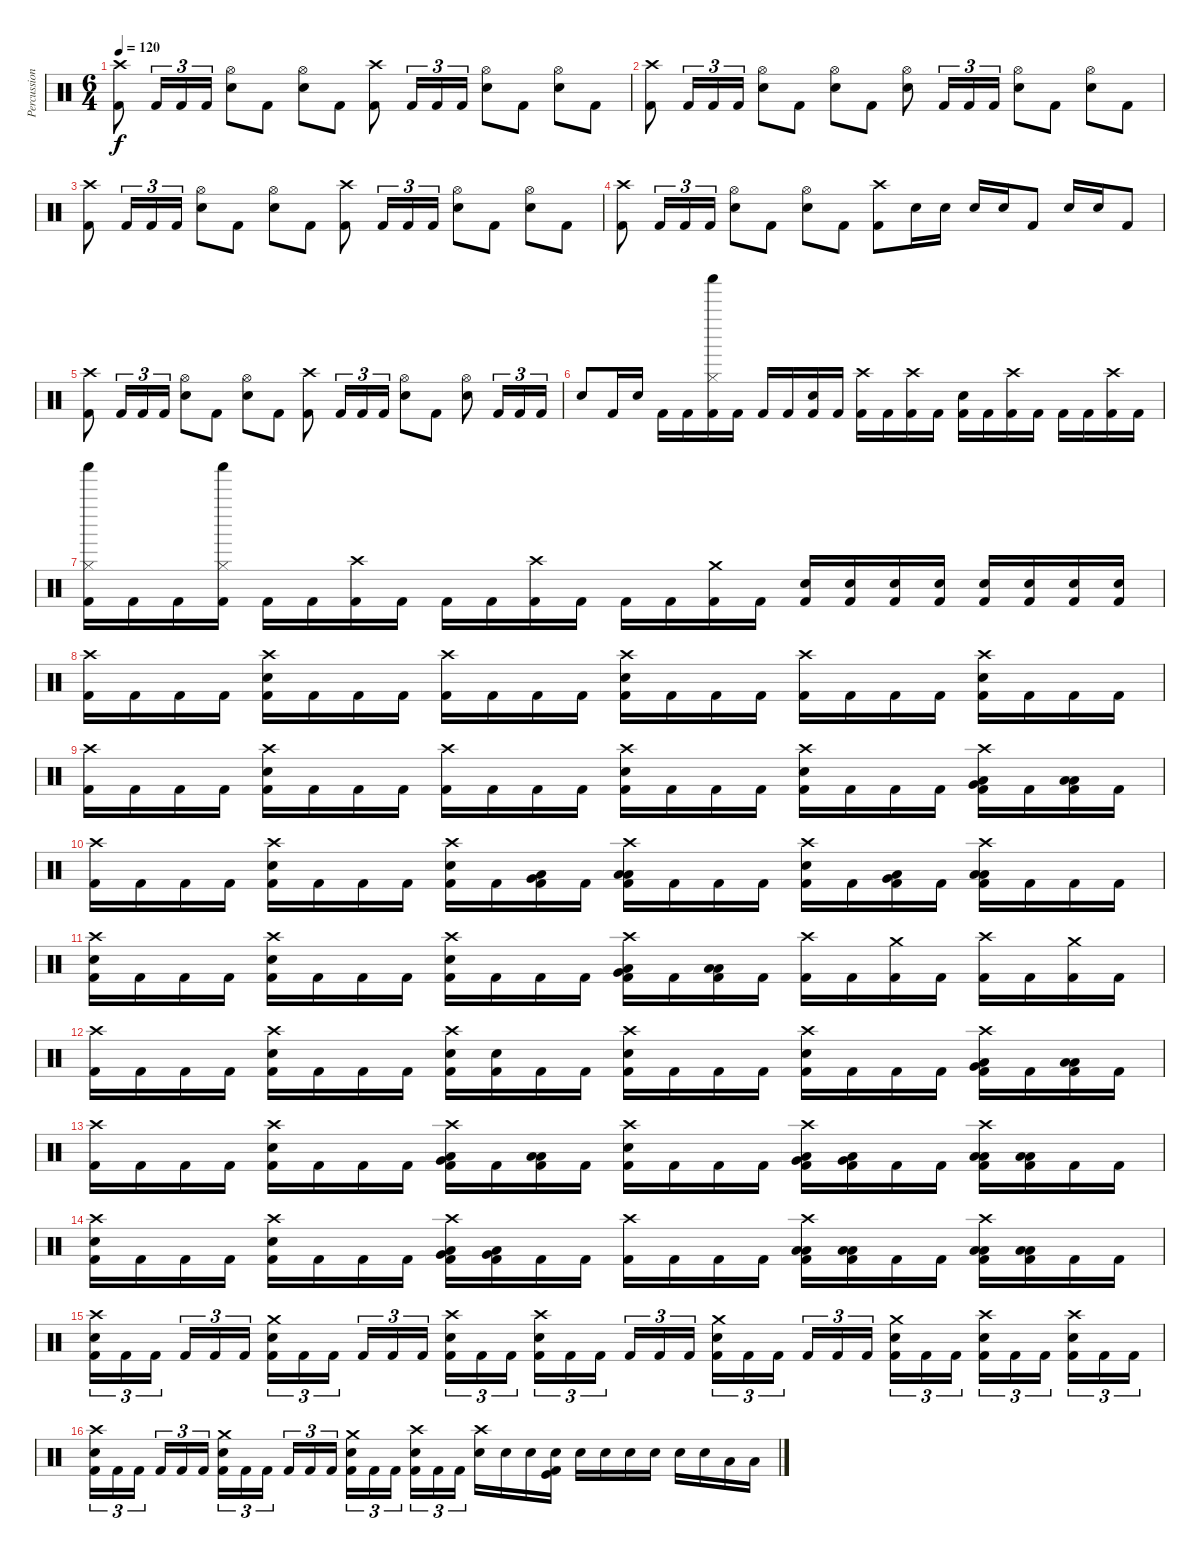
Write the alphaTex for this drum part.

\track ("Percussion" "Percussion") {instrument percussion}
\staff {score}
\articulation defaults
\ts (6 4)
\tempo 120
\clef neutral
\ks c
("Crash high (hit)" "Kick (hit) 2").8{dy f} "Kick (hit) 2".16{tu (3 2)} "Kick (hit) 2".16{tu (3 2)} "Kick (hit) 2".16{tu (3 2)} ("Hi-Hat (open)" "Electric Snare (hit)").8 "Kick (hit) 2".8 ("Hi-Hat (open)" "Electric Snare (hit)").8 "Kick (hit) 2".8 ("Crash high (hit)" "Kick (hit) 2").8 "Kick (hit) 2".16{tu (3 2)} "Kick (hit) 2".16{tu (3 2)} "Kick (hit) 2".16{tu (3 2)} ("Hi-Hat (open)" "Electric Snare (hit)").8 "Kick (hit) 2".8 ("Hi-Hat (open)" "Electric Snare (hit)").8 "Kick (hit) 2".8 |
("Crash high (hit)" "Kick (hit) 2").8 "Kick (hit) 2".16{tu (3 2)} "Kick (hit) 2".16{tu (3 2)} "Kick (hit) 2".16{tu (3 2)} ("Hi-Hat (open)" "Electric Snare (hit)").8 "Kick (hit) 2".8 ("Hi-Hat (open)" "Electric Snare (hit)").8 "Kick (hit) 2".8 ("Hi-Hat (open)" "Electric Snare (hit)").8 "Kick (hit) 2".16{tu (3 2)} "Kick (hit) 2".16{tu (3 2)} "Kick (hit) 2".16{tu (3 2)} ("Hi-Hat (open)" "Electric Snare (hit)").8 "Kick (hit) 2".8 ("Hi-Hat (open)" "Electric Snare (hit)").8 "Kick (hit) 2".8 |
("Crash high (hit)" "Kick (hit) 2").8 "Kick (hit) 2".16{tu (3 2)} "Kick (hit) 2".16{tu (3 2)} "Kick (hit) 2".16{tu (3 2)} ("Hi-Hat (open)" "Electric Snare (hit)").8 "Kick (hit) 2".8 ("Hi-Hat (open)" "Electric Snare (hit)").8 "Kick (hit) 2".8 ("Crash high (hit)" "Kick (hit) 2").8 "Kick (hit) 2".16{tu (3 2)} "Kick (hit) 2".16{tu (3 2)} "Kick (hit) 2".16{tu (3 2)} ("Hi-Hat (open)" "Electric Snare (hit)").8 "Kick (hit) 2".8 ("Hi-Hat (open)" "Electric Snare (hit)").8 "Kick (hit) 2".8 |
("Crash high (hit)" "Kick (hit) 2").8 "Kick (hit) 2".16{tu (3 2)} "Kick (hit) 2".16{tu (3 2)} "Kick (hit) 2".16{tu (3 2)} ("Hi-Hat (open)" "Electric Snare (hit)").8 "Kick (hit) 2".8 ("Hi-Hat (open)" "Electric Snare (hit)").8 "Kick (hit) 2".8 ("Crash high (hit)" "Kick (hit) 2").8 "Electric Snare (hit)".16 "Electric Snare (hit)".16 "Electric Snare (hit)".16 "Electric Snare (hit)".16 "Kick (hit) 2".8 "Electric Snare (hit)".16 "Electric Snare (hit)".16 "Kick (hit) 2".8 |
("Crash high (hit)" "Kick (hit) 2").8 "Kick (hit) 2".16{tu (3 2)} "Kick (hit) 2".16{tu (3 2)} "Kick (hit) 2".16{tu (3 2)} ("Hi-Hat (open)" "Electric Snare (hit)").8 "Kick (hit) 2".8 ("Hi-Hat (open)" "Electric Snare (hit)").8 "Kick (hit) 2".8 ("Crash high (hit)" "Kick (hit) 2").8 "Kick (hit) 2".16{tu (3 2)} "Kick (hit) 2".16{tu (3 2)} "Kick (hit) 2".16{tu (3 2)} ("Hi-Hat (open)" "Electric Snare (hit)").8 "Kick (hit) 2".8 ("Hi-Hat (open)" "Electric Snare (hit)").8 "Kick (hit) 2".16{tu (3 2)} "Kick (hit) 2".16{tu (3 2)} "Kick (hit) 2".16{tu (3 2)} |
"Electric Snare (hit)".8 "Kick (hit) 2".16 "Electric Snare (hit)".16 "Kick (hit) 2".16 "Kick (hit) 2".16 ("Shaker (hit)" "Hi-Hat (closed)" "Kick (hit) 2").16 "Kick (hit) 2".16 "Kick (hit) 2".16 "Kick (hit) 2".16 ("Electric Snare (hit)" "Kick (hit) 2").16 "Kick (hit) 2".16 ("Crash high (hit)" "Kick (hit) 2").16 "Kick (hit) 2".16 ("Crash high (hit)" "Kick (hit) 2").16 "Kick (hit) 2".16 ("Electric Snare (hit)" "Kick (hit) 2").16 "Kick (hit) 2".16 ("Crash high (hit)" "Kick (hit) 2").16 "Kick (hit) 2".16 "Kick (hit) 2".16 "Kick (hit) 2".16 ("Crash high (hit)" "Kick (hit) 2").16 "Kick (hit) 2".16 |
("Shaker (hit)" "Hi-Hat (closed)" "Kick (hit) 2").16 "Kick (hit) 2".16 "Kick (hit) 2".16 ("Shaker (hit)" "Hi-Hat (closed)" "Kick (hit) 2").16 "Kick (hit) 2".16 "Kick (hit) 2".16 ("Crash high (hit)" "Kick (hit) 2").16 "Kick (hit) 2".16 "Kick (hit) 2".16 "Kick (hit) 2".16 ("Crash high (hit)" "Kick (hit) 2").16 "Kick (hit) 2".16 "Kick (hit) 2".16 "Kick (hit) 2".16 ("Crash medium (hit)" "Kick (hit) 2").16 "Kick (hit) 2".16 ("Electric Snare (hit)" "Kick (hit) 2").16 ("Electric Snare (hit)" "Kick (hit) 2").16 ("Electric Snare (hit)" "Kick (hit) 2").16 ("Electric Snare (hit)" "Kick (hit) 2").16 ("Electric Snare (hit)" "Kick (hit) 2").16 ("Electric Snare (hit)" "Kick (hit) 2").16 ("Electric Snare (hit)" "Kick (hit) 2").16 ("Electric Snare (hit)" "Kick (hit) 2").16 |
("Crash high (hit)" "Kick (hit) 2").16 "Kick (hit) 2".16 "Kick (hit) 2".16 "Kick (hit) 2".16 ("Crash high (hit)" "Electric Snare (hit)" "Kick (hit) 2").16 "Kick (hit) 2".16 "Kick (hit) 2".16 "Kick (hit) 2".16 ("Crash high (hit)" "Kick (hit) 2").16 "Kick (hit) 2".16 "Kick (hit) 2".16 "Kick (hit) 2".16 ("Crash high (hit)" "Electric Snare (hit)" "Kick (hit) 2").16 "Kick (hit) 2".16 "Kick (hit) 2".16 "Kick (hit) 2".16 ("Crash high (hit)" "Kick (hit) 2").16 "Kick (hit) 2".16 "Kick (hit) 2".16 "Kick (hit) 2".16 ("Crash high (hit)" "Electric Snare (hit)" "Kick (hit) 2").16 "Kick (hit) 2".16 "Kick (hit) 2".16 "Kick (hit) 2".16 |
("Crash high (hit)" "Kick (hit) 2").16 "Kick (hit) 2".16 "Kick (hit) 2".16 "Kick (hit) 2".16 ("Crash high (hit)" "Electric Snare (hit)" "Kick (hit) 2").16 "Kick (hit) 2".16 "Kick (hit) 2".16 "Kick (hit) 2".16 ("Crash high (hit)" "Kick (hit) 2").16 "Kick (hit) 2".16 "Kick (hit) 2".16 "Kick (hit) 2".16 ("Crash high (hit)" "Electric Snare (hit)" "Kick (hit) 2").16 "Kick (hit) 2".16 "Kick (hit) 2".16 "Kick (hit) 2".16 ("Crash high (hit)" "Electric Snare (hit)" "Kick (hit) 2").16 "Kick (hit) 2".16 "Kick (hit) 2".16 "Kick (hit) 2".16 ("Crash high (hit)" "Low Tom (hit)" "Very Low Tom (hit)" "Kick (hit) 2").16 "Kick (hit) 2".16 ("Low Tom (hit)" "Low Floor Tom (hit)" "Kick (hit) 2").16 "Kick (hit) 2".16 |
("Crash high (hit)" "Kick (hit) 2").16 "Kick (hit) 2".16 "Kick (hit) 2".16 "Kick (hit) 2".16 ("Crash high (hit)" "Electric Snare (hit)" "Kick (hit) 2").16 "Kick (hit) 2".16 "Kick (hit) 2".16 "Kick (hit) 2".16 ("Crash high (hit)" "Electric Snare (hit)" "Kick (hit) 2").16 "Kick (hit) 2".16 ("Low Tom (hit)" "Very Low Tom (hit)" "Kick (hit) 2").16 "Kick (hit) 2".16 ("Crash high (hit)" "Low Tom (hit)" "Low Floor Tom (hit)" "Kick (hit) 2").16 "Kick (hit) 2".16 "Kick (hit) 2".16 "Kick (hit) 2".16 ("Crash high (hit)" "Electric Snare (hit)" "Kick (hit) 2").16 "Kick (hit) 2".16 ("Low Tom (hit)" "Very Low Tom (hit)" "Kick (hit) 2").16 "Kick (hit) 2".16 ("Crash high (hit)" "Low Tom (hit)" "Low Floor Tom (hit)" "Kick (hit) 2").16 "Kick (hit) 2".16 "Kick (hit) 2".16 "Kick (hit) 2".16 |
("Crash high (hit)" "Electric Snare (hit)" "Kick (hit) 2").16 "Kick (hit) 2".16 "Kick (hit) 2".16 "Kick (hit) 2".16 ("Crash high (hit)" "Electric Snare (hit)" "Kick (hit) 2").16 "Kick (hit) 2".16 "Kick (hit) 2".16 "Kick (hit) 2".16 ("Crash high (hit)" "Electric Snare (hit)" "Kick (hit) 2").16 "Kick (hit) 2".16 "Kick (hit) 2".16 "Kick (hit) 2".16 ("Crash high (hit)" "Low Tom (hit)" "Very Low Tom (hit)" "Kick (hit) 2").16 "Kick (hit) 2".16 ("Low Tom (hit)" "Low Floor Tom (hit)" "Kick (hit) 2").16 "Kick (hit) 2".16 ("Crash high (hit)" "Kick (hit) 2").16 "Kick (hit) 2".16 ("Crash medium (hit)" "Kick (hit) 2").16 "Kick (hit) 2".16 ("Crash high (hit)" "Kick (hit) 2").16 "Kick (hit) 2".16 ("Crash medium (hit)" "Kick (hit) 2").16 "Kick (hit) 2".16 |
("Crash high (hit)" "Kick (hit) 2").16 "Kick (hit) 2".16 "Kick (hit) 2".16 "Kick (hit) 2".16 ("Crash high (hit)" "Electric Snare (hit)" "Kick (hit) 2").16 "Kick (hit) 2".16 "Kick (hit) 2".16 "Kick (hit) 2".16 ("Crash high (hit)" "Electric Snare (hit)" "Kick (hit) 2").16 ("Electric Snare (hit)" "Kick (hit) 2").16 "Kick (hit) 2".16 "Kick (hit) 2".16 ("Crash high (hit)" "Electric Snare (hit)" "Kick (hit) 2").16 "Kick (hit) 2".16 "Kick (hit) 2".16 "Kick (hit) 2".16 ("Crash high (hit)" "Electric Snare (hit)" "Kick (hit) 2").16 "Kick (hit) 2".16 "Kick (hit) 2".16 "Kick (hit) 2".16 ("Crash high (hit)" "Low Tom (hit)" "Very Low Tom (hit)" "Kick (hit) 2").16 "Kick (hit) 2".16 ("Low Tom (hit)" "Low Floor Tom (hit)" "Kick (hit) 2").16 "Kick (hit) 2".16 |
("Crash high (hit)" "Kick (hit) 2").16 "Kick (hit) 2".16 "Kick (hit) 2".16 "Kick (hit) 2".16 ("Crash high (hit)" "Electric Snare (hit)" "Kick (hit) 2").16 "Kick (hit) 2".16 "Kick (hit) 2".16 "Kick (hit) 2".16 ("Crash high (hit)" "Low Tom (hit)" "Very Low Tom (hit)" "Kick (hit) 2").16 "Kick (hit) 2".16 ("Low Tom (hit)" "Low Floor Tom (hit)" "Kick (hit) 2").16 "Kick (hit) 2".16 ("Crash high (hit)" "Electric Snare (hit)" "Kick (hit) 2").16 "Kick (hit) 2".16 "Kick (hit) 2".16 "Kick (hit) 2".16 ("Crash high (hit)" "Low Tom (hit)" "Very Low Tom (hit)" "Kick (hit) 2").16 ("Low Tom (hit)" "Very Low Tom (hit)" "Kick (hit) 2").16 "Kick (hit) 2".16 "Kick (hit) 2".16 ("Crash high (hit)" "Low Tom (hit)" "Low Floor Tom (hit)" "Kick (hit) 2").16 ("Low Tom (hit)" "Low Floor Tom (hit)" "Kick (hit) 2").16 "Kick (hit) 2".16 "Kick (hit) 2".16 |
("Crash high (hit)" "Electric Snare (hit)" "Kick (hit) 2").16 "Kick (hit) 2".16 "Kick (hit) 2".16 "Kick (hit) 2".16 ("Crash high (hit)" "Electric Snare (hit)" "Kick (hit) 2").16 "Kick (hit) 2".16 "Kick (hit) 2".16 "Kick (hit) 2".16 ("Crash high (hit)" "Low Tom (hit)" "Very Low Tom (hit)" "Kick (hit) 2").16 ("Low Tom (hit)" "Very Low Tom (hit)" "Kick (hit) 2").16 "Kick (hit) 2".16 "Kick (hit) 2".16 ("Crash high (hit)" "Kick (hit) 2").16 "Kick (hit) 2".16 "Kick (hit) 2".16 "Kick (hit) 2".16 ("Crash high (hit)" "Low Tom (hit)" "Low Floor Tom (hit)" "Kick (hit) 2").16 ("Low Tom (hit)" "Low Floor Tom (hit)" "Kick (hit) 2").16 "Kick (hit) 2".16 "Kick (hit) 2".16 ("Crash high (hit)" "Low Tom (hit)" "Low Floor Tom (hit)" "Kick (hit) 2").16 ("Low Tom (hit)" "Low Floor Tom (hit)" "Kick (hit) 2").16 "Kick (hit) 2".16 "Kick (hit) 2".16 |
("Crash high (hit)" "Electric Snare (hit)" "Kick (hit) 2").16{tu (3 2)} "Kick (hit) 2".16{tu (3 2)} "Kick (hit) 2".16{tu (3 2)} "Kick (hit) 2".16{tu (3 2)} "Kick (hit) 2".16{tu (3 2)} "Kick (hit) 2".16{tu (3 2)} ("Crash medium (hit)" "Electric Snare (hit)" "Kick (hit) 2").16{tu (3 2)} "Kick (hit) 2".16{tu (3 2)} "Kick (hit) 2".16{tu (3 2)} "Kick (hit) 2".16{tu (3 2)} "Kick (hit) 2".16{tu (3 2)} "Kick (hit) 2".16{tu (3 2)} ("Crash high (hit)" "Electric Snare (hit)" "Kick (hit) 2").16{tu (3 2)} "Kick (hit) 2".16{tu (3 2)} "Kick (hit) 2".16{tu (3 2)} ("Crash high (hit)" "Electric Snare (hit)" "Kick (hit) 2").16{tu (3 2)} "Kick (hit) 2".16{tu (3 2)} "Kick (hit) 2".16{tu (3 2)} "Kick (hit) 2".16{tu (3 2)} "Kick (hit) 2".16{tu (3 2)} "Kick (hit) 2".16{tu (3 2)} ("Crash medium (hit)" "Electric Snare (hit)" "Kick (hit) 2").16{tu (3 2)} "Kick (hit) 2".16{tu (3 2)} "Kick (hit) 2".16{tu (3 2)} "Kick (hit) 2".16{tu (3 2)} "Kick (hit) 2".16{tu (3 2)} "Kick (hit) 2".16{tu (3 2)} ("Crash medium (hit)" "Electric Snare (hit)" "Kick (hit) 2").16{tu (3 2)} "Kick (hit) 2".16{tu (3 2)} "Kick (hit) 2".16{tu (3 2)} ("Crash high (hit)" "Electric Snare (hit)" "Kick (hit) 2").16{tu (3 2)} "Kick (hit) 2".16{tu (3 2)} "Kick (hit) 2".16{tu (3 2)} ("Crash high (hit)" "Electric Snare (hit)" "Kick (hit) 2").16{tu (3 2)} "Kick (hit) 2".16{tu (3 2)} "Kick (hit) 2".16{tu (3 2)} |
("Crash high (hit)" "Electric Snare (hit)" "Kick (hit) 2").16{tu (3 2)} "Kick (hit) 2".16{tu (3 2)} "Kick (hit) 2".16{tu (3 2)} "Kick (hit) 2".16{tu (3 2)} "Kick (hit) 2".16{tu (3 2)} "Kick (hit) 2".16{tu (3 2)} ("Crash medium (hit)" "Electric Snare (hit)" "Kick (hit) 2").16{tu (3 2)} "Kick (hit) 2".16{tu (3 2)} "Kick (hit) 2".16{tu (3 2)} "Kick (hit) 2".16{tu (3 2)} "Kick (hit) 2".16{tu (3 2)} "Kick (hit) 2".16{tu (3 2)} ("Crash medium (hit)" "Electric Snare (hit)" "Kick (hit) 2").16{tu (3 2)} "Kick (hit) 2".16{tu (3 2)} "Kick (hit) 2".16{tu (3 2)} ("Crash high (hit)" "Electric Snare (hit)" "Kick (hit) 2").16{tu (3 2)} "Kick (hit) 2".16{tu (3 2)} "Kick (hit) 2".16{tu (3 2)} ("Crash high (hit)" "Electric Snare (hit)").16 "Electric Snare (hit)".16 "Electric Snare (hit)".16 ("Electric Snare (hit)" "Kick (hit) 2" "Kick (hit)").16 "Electric Snare (hit)".16 "Electric Snare (hit)".16 "Electric Snare (hit)".16 "Electric Snare (hit)".16 "Electric Snare (hit)".16 "Electric Snare (hit)".16 "Low Tom (hit)".16 "Low Tom (hit)".16
